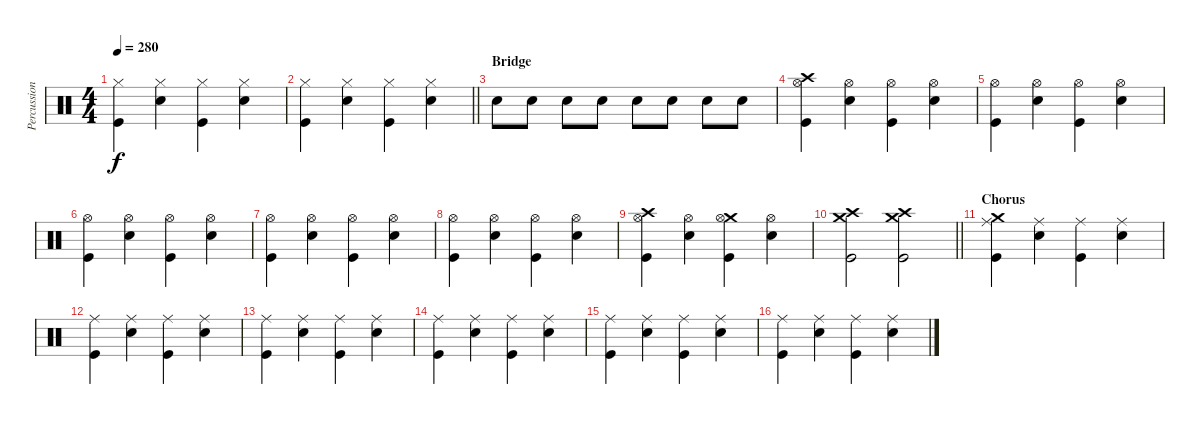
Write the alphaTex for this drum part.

\track ("Percussion" "Percussion") {instrument percussion}
\staff {score}
\articulation defaults
\ts (4 4)
\tempo 280
\clef neutral
\ks c
("Hi-Hat (closed)" "Kick (hit)").4{dy f} ("Hi-Hat (closed)" "Snare (hit) 2").4 ("Hi-Hat (closed)" "Kick (hit)").4 ("Hi-Hat (closed)" "Snare (hit) 2").4 |
\barLineRight lightlight
("Hi-Hat (closed)" "Kick (hit)").4 ("Hi-Hat (closed)" "Snare (hit) 2").4 ("Hi-Hat (closed)" "Kick (hit)").4 ("Hi-Hat (closed)" "Snare (hit) 2").4 |
\section ("" "Bridge")
"Snare (hit) 2".8 "Snare (hit) 2".8 "Snare (hit) 2".8 "Snare (hit) 2".8 "Snare (hit) 2".8 "Snare (hit) 2".8 "Snare (hit) 2".8 "Snare (hit) 2".8 |
("Crash high (hit)" "Hi-Hat (open)" "Kick (hit)").4 ("Hi-Hat (open)" "Snare (hit) 2").4 ("Hi-Hat (open)" "Kick (hit)").4 ("Hi-Hat (open)" "Snare (hit) 2").4 |
("Hi-Hat (open)" "Kick (hit)").4 ("Hi-Hat (open)" "Snare (hit) 2").4 ("Hi-Hat (open)" "Kick (hit)").4 ("Hi-Hat (open)" "Snare (hit) 2").4 |
("Hi-Hat (open)" "Kick (hit)").4 ("Hi-Hat (open)" "Snare (hit) 2").4 ("Hi-Hat (open)" "Kick (hit)").4 ("Hi-Hat (open)" "Snare (hit) 2").4 |
("Hi-Hat (open)" "Kick (hit)").4 ("Hi-Hat (open)" "Snare (hit) 2").4 ("Hi-Hat (open)" "Kick (hit)").4 ("Hi-Hat (open)" "Snare (hit) 2").4 |
("Hi-Hat (open)" "Kick (hit)").4 ("Hi-Hat (open)" "Snare (hit) 2").4 ("Hi-Hat (open)" "Kick (hit)").4 ("Hi-Hat (open)" "Snare (hit) 2").4 |
("Crash high (hit)" "Hi-Hat (open)" "Kick (hit)").4 ("Hi-Hat (open)" "Snare (hit) 2").4 ("Crash medium (hit)" "Hi-Hat (open)" "Kick (hit)").4 ("Hi-Hat (open)" "Snare (hit) 2").4 |
\barLineRight lightlight
("Crash medium (hit)" "Crash high (hit)" "Kick (hit)").2 ("Crash medium (hit)" "Crash high (hit)" "Kick (hit)").2 |
\section ("" "Chorus")
("Crash medium (hit)" "Ride (middle)" "Kick (hit)").4 ("Ride (middle)" "Snare (hit) 2").4 ("Ride (middle)" "Kick (hit)").4 ("Ride (middle)" "Snare (hit) 2").4 |
("Ride (middle)" "Kick (hit)").4 ("Ride (middle)" "Snare (hit) 2").4 ("Ride (middle)" "Kick (hit)").4 ("Ride (middle)" "Snare (hit) 2").4 |
("Ride (middle)" "Kick (hit)").4 ("Ride (middle)" "Snare (hit) 2").4 ("Ride (middle)" "Kick (hit)").4 ("Ride (middle)" "Snare (hit) 2").4 |
("Ride (middle)" "Kick (hit)").4 ("Ride (middle)" "Snare (hit) 2").4 ("Ride (middle)" "Kick (hit)").4 ("Ride (middle)" "Snare (hit) 2").4 |
("Ride (middle)" "Kick (hit)").4 ("Ride (middle)" "Snare (hit) 2").4 ("Ride (middle)" "Kick (hit)").4 ("Ride (middle)" "Snare (hit) 2").4 |
("Ride (middle)" "Kick (hit)").4 ("Ride (middle)" "Snare (hit) 2").4 ("Ride (middle)" "Kick (hit)").4 ("Ride (middle)" "Snare (hit) 2").4
